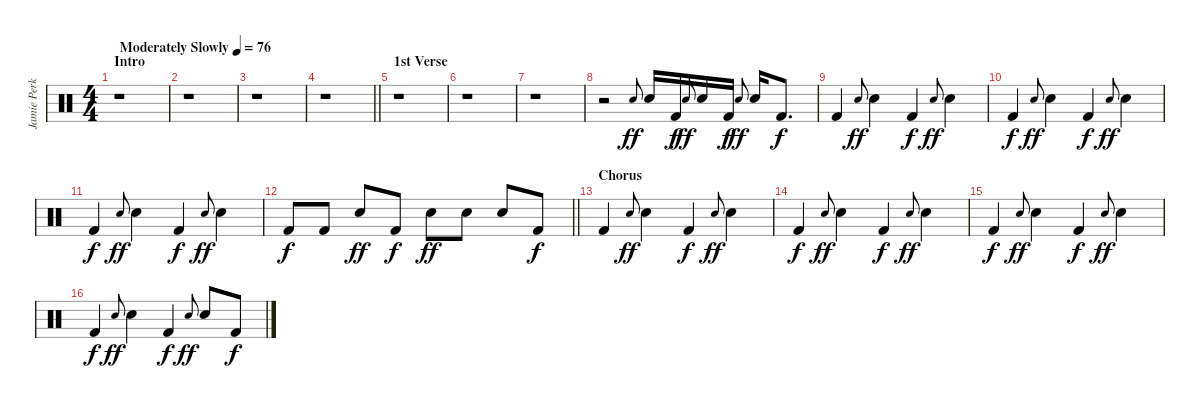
\track ("Jamie Perkins" "Jamie Perk") {instrument percussion}
\staff {score}
\articulation defaults
\ts (4 4)
\section ("" "Intro")
\tempo (76 "Moderately Slowly")
\clef neutral
\ks c
r.1{dy ff} |
r.1 |
r.1 |
\barLineRight lightlight
r.1 |
\section ("" "1st Verse")
r.1 |
r.1 |
r.1 |
r.2 "Snare (hit) 2".8{gr onbeat} "Snare (hit) 2".16 "Kick (hit) 2".16{dy f} "Snare (hit) 2".8{gr onbeat dy ff} "Snare (hit) 2".16 "Kick (hit) 2".16{dy f} "Snare (hit) 2".8{gr onbeat dy ff} "Snare (hit) 2".16 "Kick (hit) 2".8{d dy f} |
"Kick (hit) 2".4 "Snare (hit) 2".8{gr onbeat dy ff} "Snare (hit) 2".4 "Kick (hit) 2".4{dy f} "Snare (hit) 2".8{gr onbeat dy ff} "Snare (hit) 2".4 |
"Kick (hit) 2".4{dy f} "Snare (hit) 2".8{gr onbeat dy ff} "Snare (hit) 2".4 "Kick (hit) 2".4{dy f} "Snare (hit) 2".8{gr onbeat dy ff} "Snare (hit) 2".4 |
"Kick (hit) 2".4{dy f} "Snare (hit) 2".8{gr onbeat dy ff} "Snare (hit) 2".4 "Kick (hit) 2".4{dy f} "Snare (hit) 2".8{gr onbeat dy ff} "Snare (hit) 2".4 |
\barLineRight lightlight "Kick (hit) 2".8{dy f} "Kick (hit) 2".8 "Snare (hit) 2".8{dy ff} "Kick (hit) 2".8{dy f} "Snare (hit) 2".8{dy ff} "Snare (hit) 2".8 "Snare (hit) 2".8 "Kick (hit) 2".8{dy f}
|
\section ("" "Chorus")
"Kick (hit) 2".4 "Snare (hit) 2".8{gr onbeat dy ff} "Snare (hit) 2".4 "Kick (hit) 2".4{dy f} "Snare (hit) 2".8{gr onbeat dy ff} "Snare (hit) 2".4 |
"Kick (hit) 2".4{dy f} "Snare (hit) 2".8{gr onbeat dy ff} "Snare (hit) 2".4 "Kick (hit) 2".4{dy f} "Snare (hit) 2".8{gr onbeat dy ff} "Snare (hit) 2".4 |
"Kick (hit) 2".4{dy f} "Snare (hit) 2".8{gr onbeat dy ff} "Snare (hit) 2".4 "Kick (hit) 2".4{dy f} "Snare (hit) 2".8{gr onbeat dy ff} "Snare (hit) 2".4 |
"Kick (hit) 2".4{dy f} "Snare (hit) 2".8{gr onbeat dy ff} "Snare (hit) 2".4 "Kick (hit) 2".4{dy f} "Snare (hit) 2".8{gr onbeat dy ff} "Snare (hit) 2".8 "Kick (hit) 2".8{dy f}
